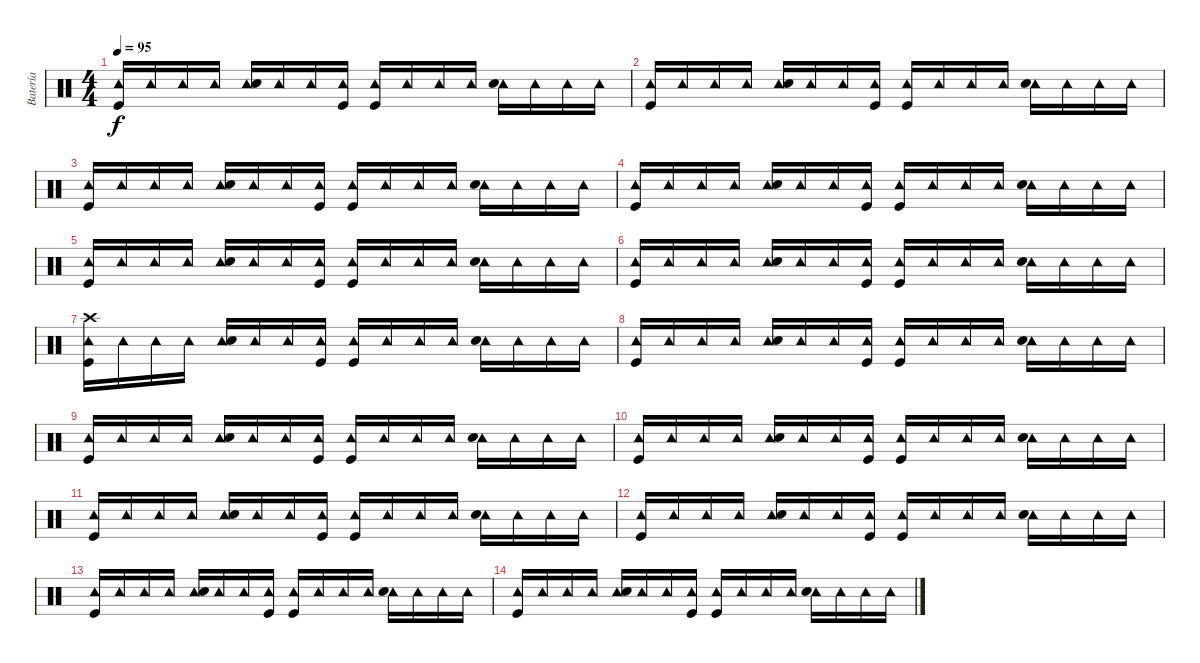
\track ("Batería" "Batería") {instrument percussion}
\staff {score}
\articulation defaults
\ts (4 4)
\tempo 95
\clef neutral
\ks c
("Tambourine (hit)" "Kick (hit)").16{dy f} "Tambourine (hit)".16 "Tambourine (hit)".16 "Tambourine (hit)".16 ("Tambourine (hit)" "Snare (hit) 2").16 "Tambourine (hit)".16 "Tambourine (hit)".16 ("Tambourine (hit)" "Kick (hit)").16 ("Tambourine (hit)" "Kick (hit)").16 "Tambourine (hit)".16 "Tambourine (hit)".16 "Tambourine (hit)".16 ("Tambourine (hit)" "Snare (hit) 2").16 "Tambourine (hit)".16 "Tambourine (hit)".16 "Tambourine (hit)".16 |
("Tambourine (hit)" "Kick (hit)").16 "Tambourine (hit)".16 "Tambourine (hit)".16 "Tambourine (hit)".16 ("Tambourine (hit)" "Snare (hit) 2").16 "Tambourine (hit)".16 "Tambourine (hit)".16 ("Tambourine (hit)" "Kick (hit)").16 ("Tambourine (hit)" "Kick (hit)").16 "Tambourine (hit)".16 "Tambourine (hit)".16 "Tambourine (hit)".16 ("Tambourine (hit)" "Snare (hit) 2").16 "Tambourine (hit)".16 "Tambourine (hit)".16 "Tambourine (hit)".16 |
("Tambourine (hit)" "Kick (hit)").16 "Tambourine (hit)".16 "Tambourine (hit)".16 "Tambourine (hit)".16 ("Tambourine (hit)" "Snare (hit) 2").16 "Tambourine (hit)".16 "Tambourine (hit)".16 ("Tambourine (hit)" "Kick (hit)").16 ("Tambourine (hit)" "Kick (hit)").16 "Tambourine (hit)".16 "Tambourine (hit)".16 "Tambourine (hit)".16 ("Tambourine (hit)" "Snare (hit) 2").16 "Tambourine (hit)".16 "Tambourine (hit)".16 "Tambourine (hit)".16 |
("Tambourine (hit)" "Kick (hit)").16 "Tambourine (hit)".16 "Tambourine (hit)".16 "Tambourine (hit)".16 ("Tambourine (hit)" "Snare (hit) 2").16 "Tambourine (hit)".16 "Tambourine (hit)".16 ("Tambourine (hit)" "Kick (hit)").16 ("Tambourine (hit)" "Kick (hit)").16 "Tambourine (hit)".16 "Tambourine (hit)".16 "Tambourine (hit)".16 ("Tambourine (hit)" "Snare (hit) 2").16 "Tambourine (hit)".16 "Tambourine (hit)".16 "Tambourine (hit)".16 |
("Tambourine (hit)" "Kick (hit)").16 "Tambourine (hit)".16 "Tambourine (hit)".16 "Tambourine (hit)".16 ("Tambourine (hit)" "Snare (hit) 2").16 "Tambourine (hit)".16 "Tambourine (hit)".16 ("Tambourine (hit)" "Kick (hit)").16 ("Tambourine (hit)" "Kick (hit)").16 "Tambourine (hit)".16 "Tambourine (hit)".16 "Tambourine (hit)".16 ("Tambourine (hit)" "Snare (hit) 2").16 "Tambourine (hit)".16 "Tambourine (hit)".16 "Tambourine (hit)".16 |
("Tambourine (hit)" "Kick (hit)").16 "Tambourine (hit)".16 "Tambourine (hit)".16 "Tambourine (hit)".16 ("Tambourine (hit)" "Snare (hit) 2").16 "Tambourine (hit)".16 "Tambourine (hit)".16 ("Tambourine (hit)" "Kick (hit)").16 ("Tambourine (hit)" "Kick (hit)").16 "Tambourine (hit)".16 "Tambourine (hit)".16 "Tambourine (hit)".16 ("Tambourine (hit)" "Snare (hit) 2").16 "Tambourine (hit)".16 "Tambourine (hit)".16 "Tambourine (hit)".16 |
("Tambourine (hit)" "Kick (hit)" "Crash high (hit)").16 "Tambourine (hit)".16 "Tambourine (hit)".16 "Tambourine (hit)".16 ("Tambourine (hit)" "Snare (hit) 2").16 "Tambourine (hit)".16 "Tambourine (hit)".16 ("Tambourine (hit)" "Kick (hit)").16 ("Tambourine (hit)" "Kick (hit)").16 "Tambourine (hit)".16 "Tambourine (hit)".16 "Tambourine (hit)".16 ("Tambourine (hit)" "Snare (hit) 2").16 "Tambourine (hit)".16 "Tambourine (hit)".16 "Tambourine (hit)".16 |
("Tambourine (hit)" "Kick (hit)").16 "Tambourine (hit)".16 "Tambourine (hit)".16 "Tambourine (hit)".16 ("Tambourine (hit)" "Snare (hit) 2").16 "Tambourine (hit)".16 "Tambourine (hit)".16 ("Tambourine (hit)" "Kick (hit)").16 ("Tambourine (hit)" "Kick (hit)").16 "Tambourine (hit)".16 "Tambourine (hit)".16 "Tambourine (hit)".16 ("Tambourine (hit)" "Snare (hit) 2").16 "Tambourine (hit)".16 "Tambourine (hit)".16 "Tambourine (hit)".16 |
("Tambourine (hit)" "Kick (hit)").16 "Tambourine (hit)".16 "Tambourine (hit)".16 "Tambourine (hit)".16 ("Tambourine (hit)" "Snare (hit) 2").16 "Tambourine (hit)".16 "Tambourine (hit)".16 ("Tambourine (hit)" "Kick (hit)").16 ("Tambourine (hit)" "Kick (hit)").16 "Tambourine (hit)".16 "Tambourine (hit)".16 "Tambourine (hit)".16 ("Tambourine (hit)" "Snare (hit) 2").16 "Tambourine (hit)".16 "Tambourine (hit)".16 "Tambourine (hit)".16 |
("Tambourine (hit)" "Kick (hit)").16{volume 0} "Tambourine (hit)".16 "Tambourine (hit)".16 "Tambourine (hit)".16 ("Tambourine (hit)" "Snare (hit) 2").16 "Tambourine (hit)".16 "Tambourine (hit)".16 ("Tambourine (hit)" "Kick (hit)").16 ("Tambourine (hit)" "Kick (hit)").16 "Tambourine (hit)".16 "Tambourine (hit)".16 "Tambourine (hit)".16 ("Tambourine (hit)" "Snare (hit) 2").16 "Tambourine (hit)".16 "Tambourine (hit)".16 "Tambourine (hit)".16 |
("Tambourine (hit)" "Kick (hit)").16 "Tambourine (hit)".16 "Tambourine (hit)".16 "Tambourine (hit)".16 ("Tambourine (hit)" "Snare (hit) 2").16 "Tambourine (hit)".16 "Tambourine (hit)".16 ("Tambourine (hit)" "Kick (hit)").16 ("Tambourine (hit)" "Kick (hit)").16 "Tambourine (hit)".16 "Tambourine (hit)".16 "Tambourine (hit)".16 ("Tambourine (hit)" "Snare (hit) 2").16 "Tambourine (hit)".16 "Tambourine (hit)".16 "Tambourine (hit)".16 |
("Tambourine (hit)" "Kick (hit)").16 "Tambourine (hit)".16 "Tambourine (hit)".16 "Tambourine (hit)".16 ("Tambourine (hit)" "Snare (hit) 2").16 "Tambourine (hit)".16 "Tambourine (hit)".16 ("Tambourine (hit)" "Kick (hit)").16 ("Tambourine (hit)" "Kick (hit)").16 "Tambourine (hit)".16 "Tambourine (hit)".16 "Tambourine (hit)".16 ("Tambourine (hit)" "Snare (hit) 2").16 "Tambourine (hit)".16 "Tambourine (hit)".16 "Tambourine (hit)".16 |
("Tambourine (hit)" "Kick (hit)").16 "Tambourine (hit)".16 "Tambourine (hit)".16 "Tambourine (hit)".16 ("Tambourine (hit)" "Snare (hit) 2").16 "Tambourine (hit)".16 "Tambourine (hit)".16 ("Tambourine (hit)" "Kick (hit)").16 ("Tambourine (hit)" "Kick (hit)").16 "Tambourine (hit)".16 "Tambourine (hit)".16 "Tambourine (hit)".16 ("Tambourine (hit)" "Snare (hit) 2").16 "Tambourine (hit)".16 "Tambourine (hit)".16 "Tambourine (hit)".16 |
("Tambourine (hit)" "Kick (hit)").16 "Tambourine (hit)".16 "Tambourine (hit)".16 "Tambourine (hit)".16 ("Tambourine (hit)" "Snare (hit) 2").16 "Tambourine (hit)".16 "Tambourine (hit)".16 ("Tambourine (hit)" "Kick (hit)").16 ("Tambourine (hit)" "Kick (hit)").16 "Tambourine (hit)".16 "Tambourine (hit)".16 "Tambourine (hit)".16 ("Tambourine (hit)" "Snare (hit) 2").16 "Tambourine (hit)".16 "Tambourine (hit)".16 "Tambourine (hit)".16
